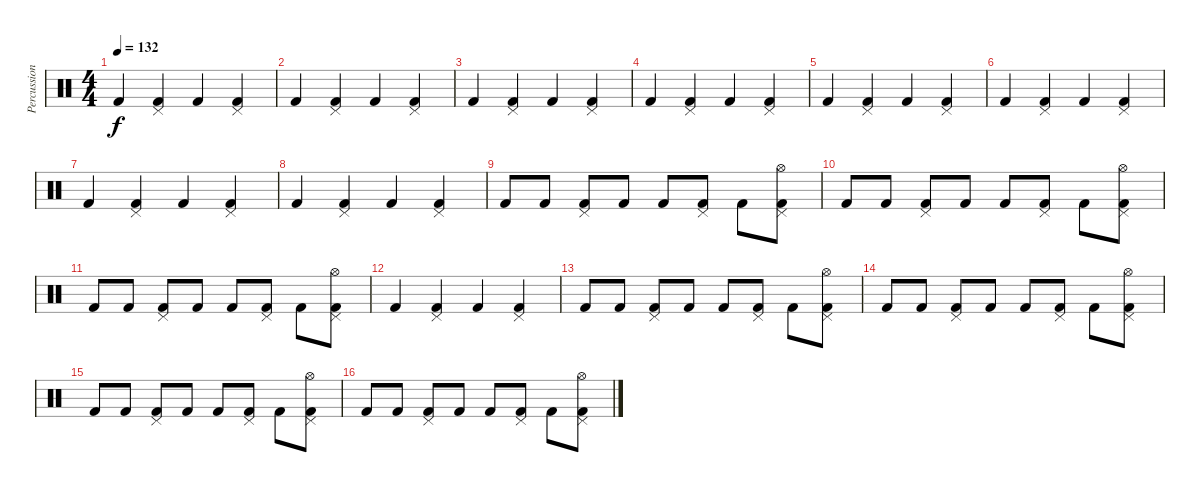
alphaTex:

\track ("Percussion" "Percussion") {instrument percussion}
\staff {score}
\articulation defaults
\ts (4 4)
\tempo 132
\clef neutral
\ks c "Kick (hit) 2".4{dy f}
("Kick (hit) 2" "Pedal Hi-Hat (hit)").4 "Kick (hit) 2".4 ("Kick (hit) 2" "Pedal Hi-Hat (hit)").4 |
"Kick (hit) 2".4 ("Kick (hit) 2" "Pedal Hi-Hat (hit)").4 "Kick (hit) 2".4 ("Kick (hit) 2" "Pedal Hi-Hat (hit)").4 |
"Kick (hit) 2".4 ("Kick (hit) 2" "Pedal Hi-Hat (hit)").4 "Kick (hit) 2".4 ("Kick (hit) 2" "Pedal Hi-Hat (hit)").4 |
"Kick (hit) 2".4 ("Kick (hit) 2" "Pedal Hi-Hat (hit)").4 "Kick (hit) 2".4 ("Kick (hit) 2" "Pedal Hi-Hat (hit)").4 |
"Kick (hit) 2".4 ("Kick (hit) 2" "Pedal Hi-Hat (hit)").4 "Kick (hit) 2".4 ("Kick (hit) 2" "Pedal Hi-Hat (hit)").4 |
"Kick (hit) 2".4 ("Kick (hit) 2" "Pedal Hi-Hat (hit)").4 "Kick (hit) 2".4 ("Kick (hit) 2" "Pedal Hi-Hat (hit)").4 |
"Kick (hit) 2".4 ("Kick (hit) 2" "Pedal Hi-Hat (hit)").4 "Kick (hit) 2".4 ("Kick (hit) 2" "Pedal Hi-Hat (hit)").4 |
"Kick (hit) 2".4 ("Kick (hit) 2" "Pedal Hi-Hat (hit)").4 "Kick (hit) 2".4 ("Kick (hit) 2" "Pedal Hi-Hat (hit)").4 |
"Kick (hit) 2".8 "Kick (hit) 2".8 ("Kick (hit) 2" "Pedal Hi-Hat (hit)").8 "Kick (hit) 2".8 "Kick (hit) 2".8 ("Kick (hit) 2" "Pedal Hi-Hat (hit)").8 "Kick (hit) 2".8 ("Kick (hit) 2" "Pedal Hi-Hat (hit)" "Hi-Hat (open)").8 |
"Kick (hit) 2".8 "Kick (hit) 2".8 ("Kick (hit) 2" "Pedal Hi-Hat (hit)").8 "Kick (hit) 2".8 "Kick (hit) 2".8 ("Kick (hit) 2" "Pedal Hi-Hat (hit)").8 "Kick (hit) 2".8 ("Kick (hit) 2" "Pedal Hi-Hat (hit)" "Hi-Hat (open)").8 |
"Kick (hit) 2".8 "Kick (hit) 2".8 ("Kick (hit) 2" "Pedal Hi-Hat (hit)").8 "Kick (hit) 2".8 "Kick (hit) 2".8 ("Kick (hit) 2" "Pedal Hi-Hat (hit)").8 "Kick (hit) 2".8 ("Kick (hit) 2" "Pedal Hi-Hat (hit)" "Hi-Hat (open)").8 |
"Kick (hit) 2".4 ("Kick (hit) 2" "Pedal Hi-Hat (hit)").4 "Kick (hit) 2".4 ("Kick (hit) 2" "Pedal Hi-Hat (hit)").4 |
"Kick (hit) 2".8 "Kick (hit) 2".8 ("Kick (hit) 2" "Pedal Hi-Hat (hit)").8 "Kick (hit) 2".8 "Kick (hit) 2".8 ("Kick (hit) 2" "Pedal Hi-Hat (hit)").8 "Kick (hit) 2".8 ("Kick (hit) 2" "Pedal Hi-Hat (hit)" "Hi-Hat (open)").8 |
"Kick (hit) 2".8 "Kick (hit) 2".8 ("Kick (hit) 2" "Pedal Hi-Hat (hit)").8 "Kick (hit) 2".8 "Kick (hit) 2".8 ("Kick (hit) 2" "Pedal Hi-Hat (hit)").8 "Kick (hit) 2".8 ("Kick (hit) 2" "Pedal Hi-Hat (hit)" "Hi-Hat (open)").8 |
"Kick (hit) 2".8 "Kick (hit) 2".8 ("Kick (hit) 2" "Pedal Hi-Hat (hit)").8 "Kick (hit) 2".8 "Kick (hit) 2".8 ("Kick (hit) 2" "Pedal Hi-Hat (hit)").8 "Kick (hit) 2".8 ("Kick (hit) 2" "Pedal Hi-Hat (hit)" "Hi-Hat (open)").8 |
"Kick (hit) 2".8 "Kick (hit) 2".8 ("Kick (hit) 2" "Pedal Hi-Hat (hit)").8 "Kick (hit) 2".8 "Kick (hit) 2".8 ("Kick (hit) 2" "Pedal Hi-Hat (hit)").8 "Kick (hit) 2".8 ("Kick (hit) 2" "Pedal Hi-Hat (hit)" "Hi-Hat (open)").8
